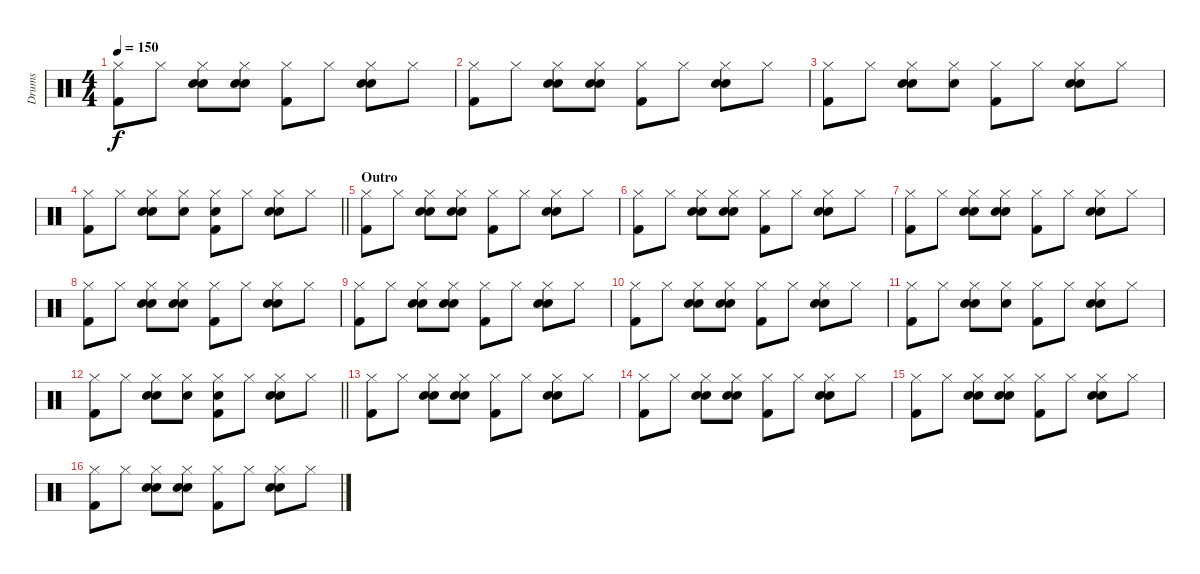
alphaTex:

\track ("Drums" "Drums") {instrument percussion}
\staff {score}
\articulation defaults
\ts (4 4)
\tempo 150
\clef neutral
\ks c
("Hi-Hat (closed)" "Kick (hit) 2").8{dy f} "Hi-Hat (closed)".8 ("Hi-Hat (closed)" "Hand Clap (hit)" "Snare (hit) 2").8 ("Hi-Hat (closed)" "Hand Clap (hit)" "Snare (hit) 2").8 ("Hi-Hat (closed)" "Kick (hit) 2").8 "Hi-Hat (closed)".8 ("Hi-Hat (closed)" "Hand Clap (hit)" "Snare (hit) 2").8 "Hi-Hat (closed)".8 |
("Hi-Hat (closed)" "Kick (hit) 2").8 "Hi-Hat (closed)".8 ("Hi-Hat (closed)" "Hand Clap (hit)" "Snare (hit) 2").8 ("Hi-Hat (closed)" "Hand Clap (hit)" "Snare (hit) 2").8 ("Hi-Hat (closed)" "Kick (hit) 2").8 "Hi-Hat (closed)".8 ("Hi-Hat (closed)" "Hand Clap (hit)" "Snare (hit) 2").8 "Hi-Hat (closed)".8 |
("Hi-Hat (closed)" "Kick (hit) 2").8 "Hi-Hat (closed)".8 ("Hi-Hat (closed)" "Hand Clap (hit)" "Snare (hit) 2").8 ("Hi-Hat (closed)" "Hand Clap (hit)").8 ("Hi-Hat (closed)" "Kick (hit) 2").8 "Hi-Hat (closed)".8 ("Hi-Hat (closed)" "Hand Clap (hit)" "Snare (hit) 2").8 "Hi-Hat (closed)".8 |
\barLineRight lightlight
("Hi-Hat (closed)" "Kick (hit) 2").8 "Hi-Hat (closed)".8 ("Hi-Hat (closed)" "Hand Clap (hit)" "Snare (hit) 2").8 ("Hi-Hat (closed)" "Hand Clap (hit)").8 ("Hi-Hat (closed)" "Snare (hit) 2" "Kick (hit) 2").8 "Hi-Hat (closed)".8 ("Hi-Hat (closed)" "Hand Clap (hit)" "Snare (hit) 2").8 "Hi-Hat (closed)".8 |
\section ("" "Outro")
("Hi-Hat (closed)" "Kick (hit) 2").8 "Hi-Hat (closed)".8 ("Hi-Hat (closed)" "Hand Clap (hit)" "Snare (hit) 2").8 ("Hi-Hat (closed)" "Hand Clap (hit)" "Snare (hit) 2").8 ("Hi-Hat (closed)" "Kick (hit) 2").8 "Hi-Hat (closed)".8 ("Hi-Hat (closed)" "Hand Clap (hit)" "Snare (hit) 2").8 "Hi-Hat (closed)".8 |
("Hi-Hat (closed)" "Kick (hit) 2").8 "Hi-Hat (closed)".8 ("Hi-Hat (closed)" "Hand Clap (hit)" "Snare (hit) 2").8 ("Hi-Hat (closed)" "Hand Clap (hit)" "Snare (hit) 2").8 ("Hi-Hat (closed)" "Kick (hit) 2").8 "Hi-Hat (closed)".8 ("Hi-Hat (closed)" "Hand Clap (hit)" "Snare (hit) 2").8 "Hi-Hat (closed)".8 |
("Hi-Hat (closed)" "Kick (hit) 2").8 "Hi-Hat (closed)".8 ("Hi-Hat (closed)" "Hand Clap (hit)" "Snare (hit) 2").8 ("Hi-Hat (closed)" "Hand Clap (hit)" "Snare (hit) 2").8 ("Hi-Hat (closed)" "Kick (hit) 2").8 "Hi-Hat (closed)".8 ("Hi-Hat (closed)" "Hand Clap (hit)" "Snare (hit) 2").8 "Hi-Hat (closed)".8 |
("Hi-Hat (closed)" "Kick (hit) 2").8 "Hi-Hat (closed)".8 ("Hi-Hat (closed)" "Hand Clap (hit)" "Snare (hit) 2").8 ("Hi-Hat (closed)" "Hand Clap (hit)" "Snare (hit) 2").8 ("Hi-Hat (closed)" "Kick (hit) 2").8 "Hi-Hat (closed)".8 ("Hi-Hat (closed)" "Hand Clap (hit)" "Snare (hit) 2").8 "Hi-Hat (closed)".8 |
("Hi-Hat (closed)" "Kick (hit) 2").8 "Hi-Hat (closed)".8 ("Hi-Hat (closed)" "Hand Clap (hit)" "Snare (hit) 2").8 ("Hi-Hat (closed)" "Hand Clap (hit)" "Snare (hit) 2").8 ("Hi-Hat (closed)" "Kick (hit) 2").8 "Hi-Hat (closed)".8 ("Hi-Hat (closed)" "Hand Clap (hit)" "Snare (hit) 2").8 "Hi-Hat (closed)".8 |
("Hi-Hat (closed)" "Kick (hit) 2").8 "Hi-Hat (closed)".8 ("Hi-Hat (closed)" "Hand Clap (hit)" "Snare (hit) 2").8 ("Hi-Hat (closed)" "Hand Clap (hit)" "Snare (hit) 2").8 ("Hi-Hat (closed)" "Kick (hit) 2").8 "Hi-Hat (closed)".8 ("Hi-Hat (closed)" "Hand Clap (hit)" "Snare (hit) 2").8 "Hi-Hat (closed)".8 |
("Hi-Hat (closed)" "Kick (hit) 2").8 "Hi-Hat (closed)".8 ("Hi-Hat (closed)" "Hand Clap (hit)" "Snare (hit) 2").8 ("Hi-Hat (closed)" "Hand Clap (hit)").8 ("Hi-Hat (closed)" "Kick (hit) 2").8 "Hi-Hat (closed)".8 ("Hi-Hat (closed)" "Hand Clap (hit)" "Snare (hit) 2").8 "Hi-Hat (closed)".8 |
\barLineRight lightlight
("Hi-Hat (closed)" "Kick (hit) 2").8 "Hi-Hat (closed)".8 ("Hi-Hat (closed)" "Hand Clap (hit)" "Snare (hit) 2").8 ("Hi-Hat (closed)" "Hand Clap (hit)").8 ("Hi-Hat (closed)" "Snare (hit) 2" "Kick (hit) 2").8 "Hi-Hat (closed)".8 ("Hi-Hat (closed)" "Hand Clap (hit)" "Snare (hit) 2").8 "Hi-Hat (closed)".8 |
("Hi-Hat (closed)" "Kick (hit) 2").8 "Hi-Hat (closed)".8 ("Hi-Hat (closed)" "Hand Clap (hit)" "Snare (hit) 2").8 ("Hi-Hat (closed)" "Hand Clap (hit)" "Snare (hit) 2").8 ("Hi-Hat (closed)" "Kick (hit) 2").8 "Hi-Hat (closed)".8 ("Hi-Hat (closed)" "Hand Clap (hit)" "Snare (hit) 2").8 "Hi-Hat (closed)".8 |
("Hi-Hat (closed)" "Kick (hit) 2").8 "Hi-Hat (closed)".8 ("Hi-Hat (closed)" "Hand Clap (hit)" "Snare (hit) 2").8 ("Hi-Hat (closed)" "Hand Clap (hit)" "Snare (hit) 2").8 ("Hi-Hat (closed)" "Kick (hit) 2").8 "Hi-Hat (closed)".8 ("Hi-Hat (closed)" "Hand Clap (hit)" "Snare (hit) 2").8 "Hi-Hat (closed)".8 |
("Hi-Hat (closed)" "Kick (hit) 2").8 "Hi-Hat (closed)".8 ("Hi-Hat (closed)" "Hand Clap (hit)" "Snare (hit) 2").8 ("Hi-Hat (closed)" "Hand Clap (hit)" "Snare (hit) 2").8 ("Hi-Hat (closed)" "Kick (hit) 2").8 "Hi-Hat (closed)".8 ("Hi-Hat (closed)" "Hand Clap (hit)" "Snare (hit) 2").8 "Hi-Hat (closed)".8 |
("Hi-Hat (closed)" "Kick (hit) 2").8 "Hi-Hat (closed)".8 ("Hi-Hat (closed)" "Hand Clap (hit)" "Snare (hit) 2").8 ("Hi-Hat (closed)" "Hand Clap (hit)" "Snare (hit) 2").8 ("Hi-Hat (closed)" "Kick (hit) 2").8 "Hi-Hat (closed)".8 ("Hi-Hat (closed)" "Hand Clap (hit)" "Snare (hit) 2").8 "Hi-Hat (closed)".8
